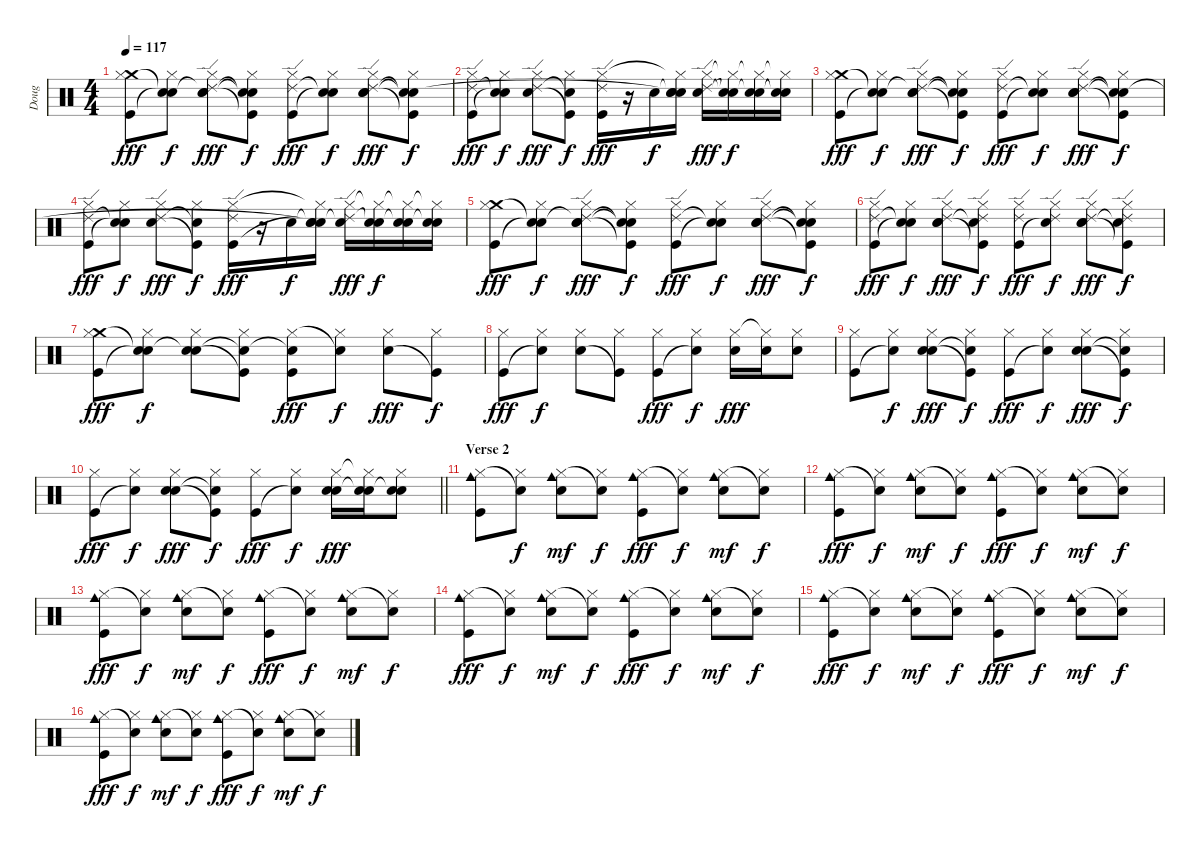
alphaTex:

\track ("Doug" "Doug") {instrument percussion}
\staff {score}
\articulation defaults
\ts (4 4)
\tempo 117
\clef neutral
\ks c
("Crash medium (hit)" "Hi-Hat (closed)" "Kick (hit)").8{dy fff} ("Snare (hit)"{t} "Hi-Hat (closed)" "Snare (hit)"{t}).8{dy f} ("Ride (edge) 2"{t} "Hi-Hat (closed)" "Snare (hit) 2" "Hand Clap (hit)").8{dy fff} ("Snare (hit)"{t} "Hi-Hat (closed)" "Kick (hit)"{t} "Snare (hit)"{t}).8{dy f} ("Ride (edge) 2" "Hi-Hat (closed)" "Kick (hit)").8{dy fff} ("Snare (hit)"{t} "Hi-Hat (closed)" "Snare (hit)"{t}).8{dy f} ("Ride (edge) 2" "Hi-Hat (closed)" "Snare (hit) 2" "Hand Clap (hit)").8{dy fff} ("Snare (hit)"{t} "Hi-Hat (closed)" "Kick (hit)"{t} "Snare (hit)"{t}).8{dy f} |
("Ride (edge) 2" "Hi-Hat (closed)" "Kick (hit)").8{dy fff} ("Snare (hit)"{t} "Hi-Hat (closed)" "Snare (hit)"{t}).8{dy f} ("Ride (edge) 2" "Hi-Hat (closed)" "Snare (hit) 2").8{dy fff} ("Snare (hit)"{t} "Hi-Hat (closed)" "Kick (hit)"{t}).8{dy f} ("Ride (edge) 2" "Hi-Hat (closed)" "Kick (hit)").16{dy fff} r.16 "Snare (hit) 2".16{dy f} ("Snare (hit)"{t} "Hi-Hat (closed)"{t} "Snare (hit) 2" "Snare (hit)"{t}).16 ("Ride (edge) 2" "Hi-Hat (closed)" "Snare (hit) 2").16{dy fff} ("Snare (hit)"{t} "Hi-Hat (closed)"{t} "Snare (hit) 2"{t}).16{dy f} ("Snare (hit)"{t} "Hi-Hat (closed)"{t} "Snare (hit) 2").16 ("Snare (hit)"{t} "Hi-Hat (closed)"{t} "Snare (hit) 2"{t}).16 |
("Crash medium (hit)" "Hi-Hat (closed)" "Kick (hit)").8{dy fff} ("Snare (hit)"{t} "Hi-Hat (closed)" "Snare (hit)"{t}).8{dy f} ("Ride (edge) 2"{t} "Hi-Hat (closed)" "Snare (hit) 2" "Hand Clap (hit)").8{dy fff} ("Snare (hit)"{t} "Hi-Hat (closed)" "Kick (hit)"{t} "Snare (hit)"{t}).8{dy f} ("Ride (edge) 2" "Hi-Hat (closed)" "Kick (hit)").8{dy fff} ("Snare (hit)"{t} "Hi-Hat (closed)" "Snare (hit)"{t}).8{dy f} ("Ride (edge) 2" "Hi-Hat (closed)" "Snare (hit) 2" "Hand Clap (hit)").8{dy fff} ("Snare (hit)"{t} "Hi-Hat (closed)" "Kick (hit)"{t} "Snare (hit)"{t}).8{dy f} |
("Ride (edge) 2" "Hi-Hat (closed)" "Kick (hit)").8{dy fff} ("Snare (hit)"{t} "Hi-Hat (closed)" "Snare (hit)"{t}).8{dy f} ("Ride (edge) 2" "Hi-Hat (closed)" "Snare (hit) 2").8{dy fff} ("Snare (hit)"{t} "Hi-Hat (closed)" "Kick (hit)"{t}).8{dy f} ("Ride (edge) 2" "Hi-Hat (closed)" "Kick (hit)").16{dy fff} r.16 "Snare (hit) 2".16{dy f} ("Snare (hit)"{t} "Hi-Hat (closed)"{t} "Snare (hit) 2"{t} "Snare (hit)"{t}).16 ("Ride (edge) 2" "Hi-Hat (closed)" "Snare (hit) 2"{t}).16{dy fff} ("Snare (hit)"{t} "Hi-Hat (closed)"{t} "Snare (hit) 2").16{dy f} ("Snare (hit)"{t} "Hi-Hat (closed)"{t} "Snare (hit) 2").16 ("Snare (hit)"{t} "Hi-Hat (closed)"{t} "Snare (hit) 2").16 |
("Crash medium (hit)" "Hi-Hat (closed)" "Kick (hit)").8{dy fff} ("Snare (hit)"{t} "Hi-Hat (closed)" "Snare (hit)"{t}).8{dy f} ("Ride (edge) 2"{t} "Hi-Hat (closed)" "Snare (hit) 2" "Hand Clap (hit)").8{dy fff} ("Snare (hit)"{t} "Hi-Hat (closed)" "Kick (hit)"{t} "Snare (hit)"{t}).8{dy f} ("Ride (edge) 2" "Hi-Hat (closed)" "Kick (hit)").8{dy fff} ("Snare (hit)"{t} "Hi-Hat (closed)" "Snare (hit)"{t}).8{dy f} ("Ride (edge) 2" "Hi-Hat (closed)" "Snare (hit) 2" "Hand Clap (hit)").8{dy fff} ("Snare (hit)"{t} "Hi-Hat (closed)" "Kick (hit)"{t} "Snare (hit)"{t}).8{dy f} |
("Ride (edge) 2" "Hi-Hat (closed)" "Kick (hit)").8{dy fff} ("Snare (hit)"{t} "Hi-Hat (closed)" "Snare (hit)"{t}).8{dy f} ("Ride (edge) 2" "Hi-Hat (closed)" "Snare (hit) 2" "Hand Clap (hit)").8{dy fff} ("Ride (edge) 2" "Hi-Hat (closed)" "Kick (hit)"{t} "Snare (hit)"{t}).8{dy f} ("Ride (edge) 2" "Hi-Hat (closed)" "Kick (hit)").8{dy fff} ("Ride (edge) 2" "Hi-Hat (closed)" "Snare (hit)"{t}).8{dy f} ("Ride (edge) 2" "Hi-Hat (closed)" "Snare (hit) 2" "Hand Clap (hit)").8{dy fff} ("Ride (edge) 2" "Hi-Hat (closed)" "Kick (hit)"{t} "Snare (hit)"{t}).8{dy f} |
("Crash medium (hit)" "Hi-Hat (closed)" "Kick (hit)").8{dy fff} ("Snare (hit)"{t} "Hi-Hat (closed)" "Snare (hit)"{t}).8{dy f} ("Snare (hit)"{t} "Hi-Hat (closed)" "Snare (hit) 2").8 ("Snare (hit)"{t} "Hi-Hat (closed)" "Kick (hit)"{t}).8 ("Snare (hit)"{t} "Hi-Hat (closed)" "Kick (hit)").8{dy fff} ("Hi-Hat (closed)" "Snare (hit)"{t}).8{dy f} ("Hi-Hat (closed)" "Snare (hit) 2").8{dy fff} ("Hi-Hat (closed)" "Kick (hit)"{t}).8{dy f} |
("Hi-Hat (closed)" "Kick (hit)").8{dy fff} ("Hi-Hat (closed)" "Snare (hit)"{t}).8{dy f} ("Hi-Hat (closed)" "Snare (hit) 2").8 ("Hi-Hat (closed)" "Kick (hit)"{t}).8 ("Hi-Hat (closed)" "Kick (hit)").8{dy fff} ("Hi-Hat (closed)" "Snare (hit)"{t}).8{dy f} ("Hi-Hat (closed)" "Snare (hit) 2").16{dy fff} ("Hi-Hat (closed)"{t} "Snare (hit) 2").16 ("Hi-Hat (closed)" "Snare (hit) 2").8 |
("Hi-Hat (closed)" "Kick (hit)").8 ("Hi-Hat (closed)" "Snare (hit)"{t}).8{dy f} ("Hand Clap (hit)" "Hi-Hat (closed)" "Snare (hit) 2").8{dy fff} ("Snare (hit)"{t} "Hi-Hat (closed)" "Kick (hit)"{t}).8{dy f} ("Hi-Hat (closed)" "Kick (hit)").8{dy fff} ("Hi-Hat (closed)" "Snare (hit)"{t}).8{dy f} ("Hand Clap (hit)" "Hi-Hat (closed)" "Snare (hit) 2").8{dy fff} ("Snare (hit)"{t} "Hi-Hat (closed)" "Kick (hit)"{t}).8{dy f} |
\barLineRight lightlight
("Hi-Hat (closed)" "Kick (hit)").8{dy fff} ("Hi-Hat (closed)" "Snare (hit)"{t}).8{dy f} ("Hand Clap (hit)" "Hi-Hat (closed)" "Snare (hit) 2").8{dy fff} ("Snare (hit)"{t} "Hi-Hat (closed)" "Kick (hit)"{t}).8{dy f} ("Hi-Hat (closed)" "Kick (hit)").8{dy fff} ("Hi-Hat (closed)" "Snare (hit)"{t}).8{dy f} ("Hand Clap (hit)" "Hi-Hat (closed)" "Snare (hit) 2").16{dy fff} ("Snare (hit)"{t} "Hi-Hat (closed)"{t} "Snare (hit) 2").16 ("Snare (hit)"{t} "Hi-Hat (closed)" "Snare (hit) 2").8 |
\section ("" "Verse 2")
("Cowbell medium (hit)" "Hi-Hat (closed)" "Kick (hit)").8 ("Hi-Hat (closed)" "Snare (hit)"{t}).8{dy f} ("Cowbell medium (hit)" "Hi-Hat (closed)" "Snare (hit) 2").8{dy mf} ("Hi-Hat (closed)" "Snare (hit)"{t}).8{dy f} ("Cowbell medium (hit)" "Hi-Hat (closed)" "Kick (hit)").8{dy fff} ("Hi-Hat (closed)" "Snare (hit)"{t}).8{dy f} ("Cowbell medium (hit)" "Hi-Hat (closed)" "Snare (hit) 2").8{dy mf} ("Hi-Hat (closed)" "Snare (hit)"{t}).8{dy f} |
("Cowbell medium (hit)" "Hi-Hat (closed)" "Kick (hit)").8{dy fff} ("Hi-Hat (closed)" "Snare (hit)"{t}).8{dy f} ("Cowbell medium (hit)" "Hi-Hat (closed)" "Snare (hit) 2").8{dy mf} ("Hi-Hat (closed)" "Snare (hit)"{t}).8{dy f} ("Cowbell medium (hit)" "Hi-Hat (closed)" "Kick (hit)").8{dy fff} ("Hi-Hat (closed)" "Snare (hit)"{t}).8{dy f} ("Cowbell medium (hit)" "Hi-Hat (closed)" "Snare (hit) 2").8{dy mf} ("Hi-Hat (closed)" "Snare (hit)"{t}).8{dy f} |
("Cowbell medium (hit)" "Hi-Hat (closed)" "Kick (hit)").8{dy fff} ("Hi-Hat (closed)" "Snare (hit)"{t}).8{dy f} ("Cowbell medium (hit)" "Hi-Hat (closed)" "Snare (hit) 2").8{dy mf} ("Hi-Hat (closed)" "Snare (hit)"{t}).8{dy f} ("Cowbell medium (hit)" "Hi-Hat (closed)" "Kick (hit)").8{dy fff} ("Hi-Hat (closed)" "Snare (hit)"{t}).8{dy f} ("Cowbell medium (hit)" "Hi-Hat (closed)" "Snare (hit) 2").8{dy mf} ("Hi-Hat (closed)" "Snare (hit)"{t}).8{dy f} |
("Cowbell medium (hit)" "Hi-Hat (closed)" "Kick (hit)").8{dy fff} ("Hi-Hat (closed)" "Snare (hit)"{t}).8{dy f} ("Cowbell medium (hit)" "Hi-Hat (closed)" "Snare (hit) 2").8{dy mf} ("Hi-Hat (closed)" "Snare (hit)"{t}).8{dy f} ("Cowbell medium (hit)" "Hi-Hat (closed)" "Kick (hit)").8{dy fff} ("Hi-Hat (closed)" "Snare (hit)"{t}).8{dy f} ("Cowbell medium (hit)" "Hi-Hat (closed)" "Snare (hit) 2").8{dy mf} ("Hi-Hat (closed)" "Snare (hit)"{t}).8{dy f} |
("Cowbell medium (hit)" "Hi-Hat (closed)" "Kick (hit)").8{dy fff} ("Hi-Hat (closed)" "Snare (hit)"{t}).8{dy f} ("Cowbell medium (hit)" "Hi-Hat (closed)" "Snare (hit) 2").8{dy mf} ("Hi-Hat (closed)" "Snare (hit)"{t}).8{dy f} ("Cowbell medium (hit)" "Hi-Hat (closed)" "Kick (hit)").8{dy fff} ("Hi-Hat (closed)" "Snare (hit)"{t}).8{dy f} ("Cowbell medium (hit)" "Hi-Hat (closed)" "Snare (hit) 2").8{dy mf} ("Hi-Hat (closed)" "Snare (hit)"{t}).8{dy f} |
("Cowbell medium (hit)" "Hi-Hat (closed)" "Kick (hit)").8{dy fff} ("Hi-Hat (closed)" "Snare (hit)"{t}).8{dy f} ("Cowbell medium (hit)" "Hi-Hat (closed)" "Snare (hit) 2").8{dy mf} ("Hi-Hat (closed)" "Snare (hit)"{t}).8{dy f} ("Cowbell medium (hit)" "Hi-Hat (closed)" "Kick (hit)").8{dy fff} ("Hi-Hat (closed)" "Snare (hit)"{t}).8{dy f} ("Cowbell medium (hit)" "Hi-Hat (closed)" "Snare (hit) 2").8{dy mf} ("Hi-Hat (closed)" "Snare (hit)"{t}).8{dy f}
